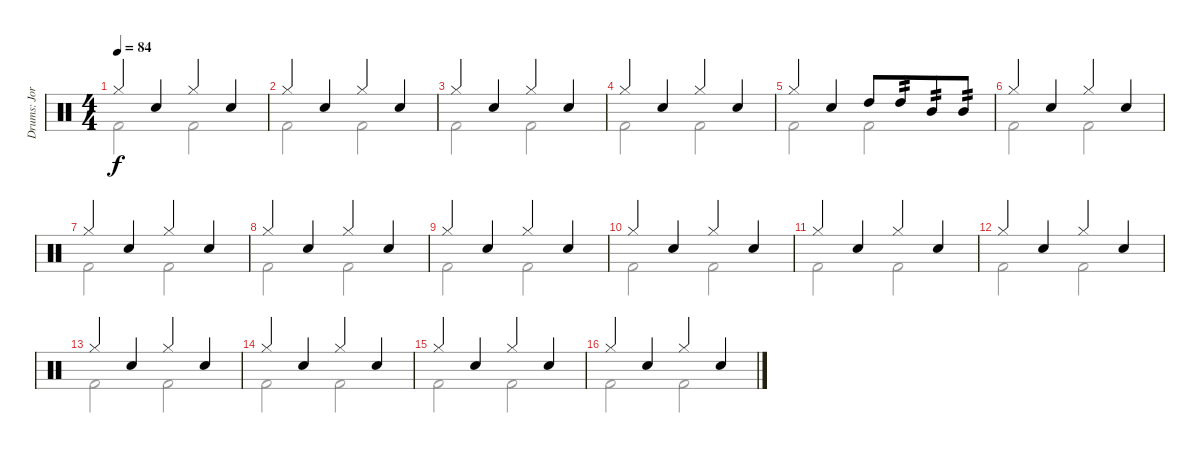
\track ("Drums: Jorg" "Drums: Jor") {instrument percussion}
\staff {score}
\articulation defaults
\voice
\ts (4 4)
\tempo 84
\clef neutral
\ks c "Hi-Hat (closed)".4{dy f} "Snare (hit) 2".4 "Hi-Hat (closed)".4 "Snare (hit) 2".4
|
"Hi-Hat (closed)".4 "Snare (hit) 2".4 "Hi-Hat (closed)".4 "Snare (hit) 2".4 |
"Hi-Hat (closed)".4 "Snare (hit) 2".4 "Hi-Hat (closed)".4 "Snare (hit) 2".4 |
"Hi-Hat (closed)".4 "Snare (hit) 2".4 "Hi-Hat (closed)".4 "Snare (hit) 2".4 |
"Hi-Hat (closed)".4 "Snare (hit) 2".4 "High Tom (hit)".8 "High Tom (hit)".8{tp 2 beam merge} "Mid Tom (hit)".8{tp 2} "Mid Tom (hit)".8{tp 2} |
"Hi-Hat (closed)".4 "Snare (hit) 2".4 "Hi-Hat (closed)".4 "Snare (hit) 2".4 |
"Hi-Hat (closed)".4 "Snare (hit) 2".4 "Hi-Hat (closed)".4 "Snare (hit) 2".4 |
"Hi-Hat (closed)".4 "Snare (hit) 2".4 "Hi-Hat (closed)".4 "Snare (hit) 2".4 |
"Hi-Hat (closed)".4 "Snare (hit) 2".4 "Hi-Hat (closed)".4 "Snare (hit) 2".4 |
"Hi-Hat (closed)".4 "Snare (hit) 2".4 "Hi-Hat (closed)".4 "Snare (hit) 2".4 |
"Hi-Hat (closed)".4 "Snare (hit) 2".4 "Hi-Hat (closed)".4 "Snare (hit) 2".4 |
"Hi-Hat (closed)".4 "Snare (hit) 2".4 "Hi-Hat (closed)".4 "Snare (hit) 2".4 |
"Hi-Hat (closed)".4 "Snare (hit) 2".4 "Hi-Hat (closed)".4 "Snare (hit) 2".4 |
"Hi-Hat (closed)".4 "Snare (hit) 2".4 "Hi-Hat (closed)".4 "Snare (hit) 2".4 |
"Hi-Hat (closed)".4 "Snare (hit) 2".4 "Hi-Hat (closed)".4 "Snare (hit) 2".4 |
"Hi-Hat (closed)".4 "Snare (hit) 2".4 "Hi-Hat (closed)".4 "Snare (hit) 2".4
\voice
\clef neutral
\ottava regular
\simile none
\ks c "Kick (hit) 2".2{dy f} "Kick (hit) 2".2
|
"Kick (hit) 2".2 "Kick (hit) 2".2 |
"Kick (hit) 2".2 "Kick (hit) 2".2 |
"Kick (hit) 2".2 "Kick (hit) 2".2 |
"Kick (hit) 2".2 "Kick (hit) 2".2 |
"Kick (hit) 2".2 "Kick (hit) 2".2 |
"Kick (hit) 2".2 "Kick (hit) 2".2 |
"Kick (hit) 2".2 "Kick (hit) 2".2 |
"Kick (hit) 2".2 "Kick (hit) 2".2 |
"Kick (hit) 2".2 "Kick (hit) 2".2 |
"Kick (hit) 2".2 "Kick (hit) 2".2 |
"Kick (hit) 2".2 "Kick (hit) 2".2 |
"Kick (hit) 2".2 "Kick (hit) 2".2 |
"Kick (hit) 2".2 "Kick (hit) 2".2 |
"Kick (hit) 2".2 "Kick (hit) 2".2 |
"Kick (hit) 2".2 "Kick (hit) 2".2
